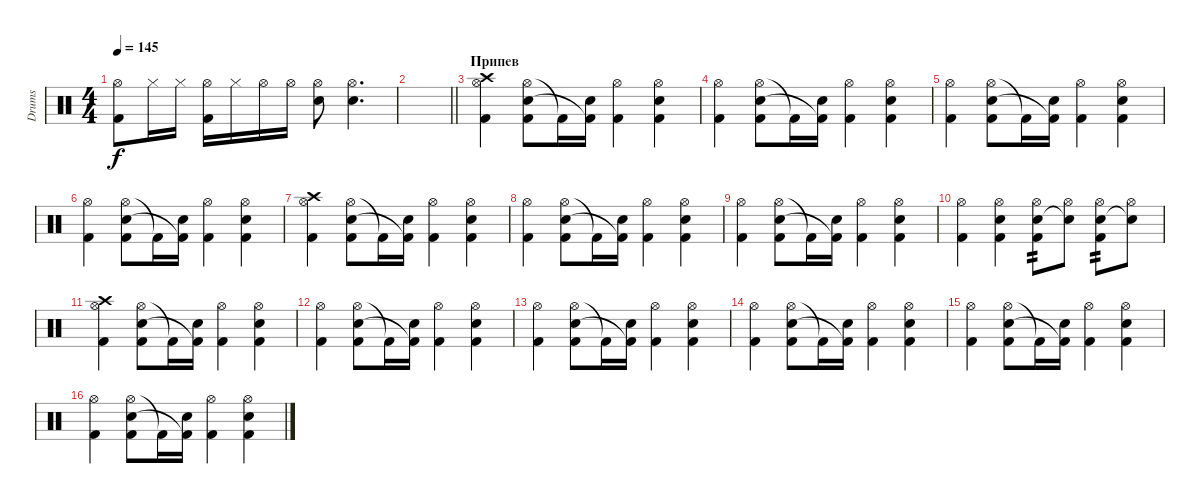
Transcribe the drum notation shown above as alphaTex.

\track ("Drums" "Drums") {instrument percussion}
\staff {score}
\articulation defaults
\ts (4 4)
\tempo 145
\clef neutral
\ks c
("Hi-Hat (open)" "Kick (hit) 2").8{dy f} "Hi-Hat (closed)".16 "Hi-Hat (closed)".16 ("Hi-Hat (open)" "Kick (hit) 2").16 "Hi-Hat (closed)".16 "Hi-Hat (open)".16 "Hi-Hat (open)".16 ("Hi-Hat (open)" "Electric Snare (hit)").8 ("Hi-Hat (open)" "Electric Snare (hit)").4{d} |
\barLineRight lightlight
|
\section ("" "Припев")
("Crash high (hit)" "Hi-Hat (open)" "Kick (hit) 2").4 ("Hi-Hat (open)" "Electric Snare (hit)" "Kick (hit) 2").8 "Kick (hit) 2"{t}.16 ("Electric Snare (hit)" "Kick (hit) 2"{t}).16 ("Hi-Hat (open)" "Kick (hit) 2").4 ("Hi-Hat (open)" "Electric Snare (hit)" "Kick (hit) 2").4 |
("Hi-Hat (open)" "Kick (hit) 2").4 ("Hi-Hat (open)" "Electric Snare (hit)" "Kick (hit) 2").8 "Kick (hit) 2"{t}.16 ("Electric Snare (hit)" "Kick (hit) 2"{t}).16 ("Hi-Hat (open)" "Kick (hit) 2").4 ("Hi-Hat (open)" "Electric Snare (hit)" "Kick (hit) 2").4 |
("Hi-Hat (open)" "Kick (hit) 2").4 ("Hi-Hat (open)" "Electric Snare (hit)" "Kick (hit) 2").8 "Kick (hit) 2"{t}.16 ("Electric Snare (hit)" "Kick (hit) 2"{t}).16 ("Hi-Hat (open)" "Kick (hit) 2").4 ("Hi-Hat (open)" "Electric Snare (hit)" "Kick (hit) 2").4 |
("Hi-Hat (open)" "Kick (hit) 2").4 ("Hi-Hat (open)" "Electric Snare (hit)" "Kick (hit) 2").8 "Kick (hit) 2"{t}.16 ("Electric Snare (hit)" "Kick (hit) 2"{t}).16 ("Hi-Hat (open)" "Kick (hit) 2").4 ("Hi-Hat (open)" "Electric Snare (hit)" "Kick (hit) 2").4 |
("Crash high (hit)" "Hi-Hat (open)" "Kick (hit) 2").4 ("Hi-Hat (open)" "Electric Snare (hit)" "Kick (hit) 2").8 "Kick (hit) 2"{t}.16 ("Electric Snare (hit)" "Kick (hit) 2"{t}).16 ("Hi-Hat (open)" "Kick (hit) 2").4 ("Hi-Hat (open)" "Electric Snare (hit)" "Kick (hit) 2").4 |
("Hi-Hat (open)" "Kick (hit) 2").4 ("Hi-Hat (open)" "Electric Snare (hit)" "Kick (hit) 2").8 "Kick (hit) 2"{t}.16 ("Electric Snare (hit)" "Kick (hit) 2"{t}).16 ("Hi-Hat (open)" "Kick (hit) 2").4 ("Hi-Hat (open)" "Electric Snare (hit)" "Kick (hit) 2").4 |
("Hi-Hat (open)" "Kick (hit) 2").4 ("Hi-Hat (open)" "Electric Snare (hit)" "Kick (hit) 2").8 "Kick (hit) 2"{t}.16 ("Electric Snare (hit)" "Kick (hit) 2"{t}).16 ("Hi-Hat (open)" "Kick (hit) 2").4 ("Hi-Hat (open)" "Electric Snare (hit)" "Kick (hit) 2").4 |
("Hi-Hat (open)" "Kick (hit) 2").4 ("Hi-Hat (open)" "Electric Snare (hit)" "Kick (hit) 2").4 ("Hi-Hat (open)" "Electric Snare (hit)" "Kick (hit) 2").8{tp 2} ("Hi-Hat (open)" "Electric Snare (hit)"{t}).8 ("Hi-Hat (open)" "Electric Snare (hit)" "Kick (hit) 2").8{tp 2} ("Hi-Hat (open)" "Electric Snare (hit)"{t}).8 |
("Crash high (hit)" "Hi-Hat (open)" "Kick (hit) 2").4 ("Hi-Hat (open)" "Electric Snare (hit)" "Kick (hit) 2").8 "Kick (hit) 2"{t}.16 ("Electric Snare (hit)" "Kick (hit) 2"{t}).16 ("Hi-Hat (open)" "Kick (hit) 2").4 ("Hi-Hat (open)" "Electric Snare (hit)" "Kick (hit) 2").4 |
("Hi-Hat (open)" "Kick (hit) 2").4 ("Hi-Hat (open)" "Electric Snare (hit)" "Kick (hit) 2").8 "Kick (hit) 2"{t}.16 ("Electric Snare (hit)" "Kick (hit) 2"{t}).16 ("Hi-Hat (open)" "Kick (hit) 2").4 ("Hi-Hat (open)" "Electric Snare (hit)" "Kick (hit) 2").4 |
("Hi-Hat (open)" "Kick (hit) 2").4 ("Hi-Hat (open)" "Electric Snare (hit)" "Kick (hit) 2").8 "Kick (hit) 2"{t}.16 ("Electric Snare (hit)" "Kick (hit) 2"{t}).16 ("Hi-Hat (open)" "Kick (hit) 2").4 ("Hi-Hat (open)" "Electric Snare (hit)" "Kick (hit) 2").4 |
("Hi-Hat (open)" "Kick (hit) 2").4 ("Hi-Hat (open)" "Electric Snare (hit)" "Kick (hit) 2").8 "Kick (hit) 2"{t}.16 ("Electric Snare (hit)" "Kick (hit) 2"{t}).16 ("Hi-Hat (open)" "Kick (hit) 2").4 ("Hi-Hat (open)" "Electric Snare (hit)" "Kick (hit) 2").4 |
("Hi-Hat (open)" "Kick (hit) 2").4 ("Hi-Hat (open)" "Electric Snare (hit)" "Kick (hit) 2").8 "Kick (hit) 2"{t}.16 ("Electric Snare (hit)" "Kick (hit) 2"{t}).16 ("Hi-Hat (open)" "Kick (hit) 2").4 ("Hi-Hat (open)" "Electric Snare (hit)" "Kick (hit) 2").4 |
("Hi-Hat (open)" "Kick (hit) 2").4 ("Hi-Hat (open)" "Electric Snare (hit)" "Kick (hit) 2").8 "Kick (hit) 2"{t}.16 ("Electric Snare (hit)" "Kick (hit) 2"{t}).16 ("Hi-Hat (open)" "Kick (hit) 2").4 ("Hi-Hat (open)" "Electric Snare (hit)" "Kick (hit) 2").4
